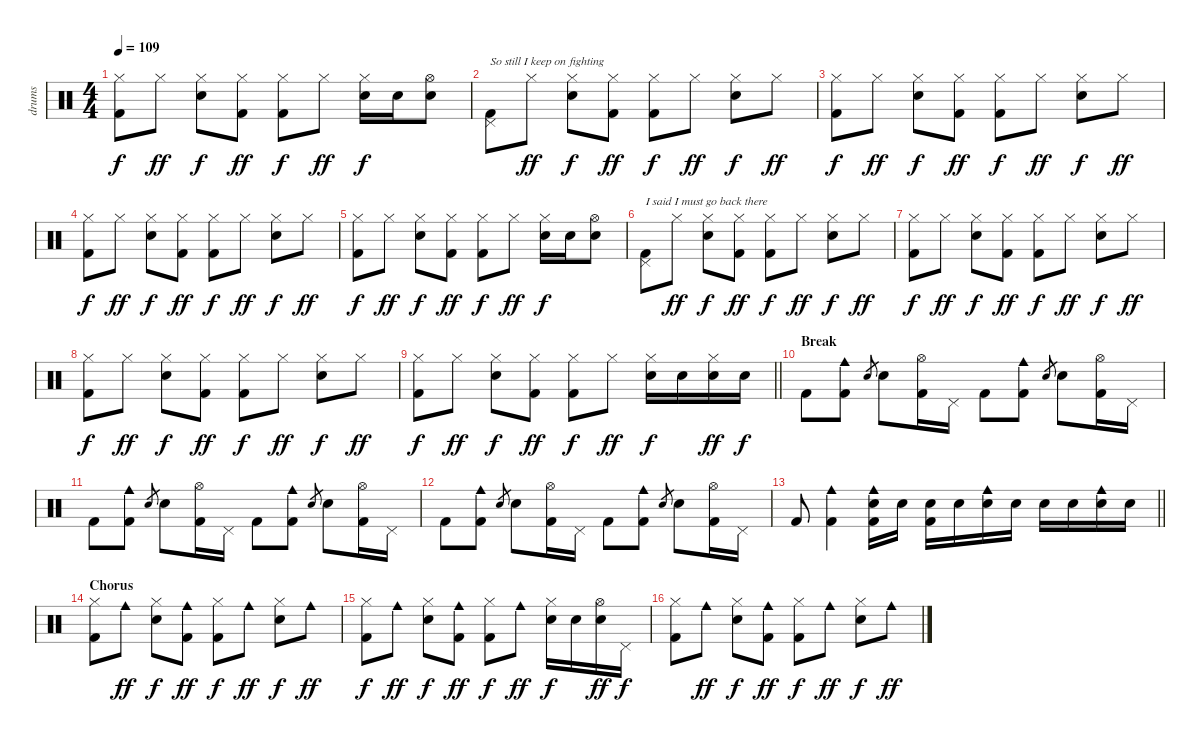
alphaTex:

\track ("drums" "drums") {instrument percussion}
\staff {score}
\articulation defaults
\ts (4 4)
\tempo 109
\clef neutral
\ks aminor
("Hi-Hat (closed)" "Kick (hit) 2").8{dy f} "Hi-Hat (closed)".8{dy ff} ("Hi-Hat (closed)" "Snare (hit) 2").8{dy f} ("Hi-Hat (closed)" "Kick (hit) 2").8{dy ff} ("Hi-Hat (closed)" "Kick (hit) 2").8{dy f} "Hi-Hat (closed)".8{dy ff} ("Hi-Hat (closed)" "Snare (hit) 2").16{dy f} "Snare (hit) 2".16 ("Hi-Hat (open)" "Snare (hit) 2").8 |
("Pedal Hi-Hat (hit)" "Kick (hit) 2").8{txt "So still I keep on fighting"} "Hi-Hat (closed)".8{dy ff} ("Hi-Hat (closed)" "Snare (hit) 2").8{dy f} ("Hi-Hat (closed)" "Kick (hit) 2").8{dy ff} ("Hi-Hat (closed)" "Kick (hit) 2").8{dy f} "Hi-Hat (closed)".8{dy ff} ("Hi-Hat (closed)" "Snare (hit) 2").8{dy f} "Hi-Hat (closed)".8{dy ff} |
("Hi-Hat (closed)" "Kick (hit) 2").8{dy f} "Hi-Hat (closed)".8{dy ff} ("Hi-Hat (closed)" "Snare (hit) 2").8{dy f} ("Hi-Hat (closed)" "Kick (hit) 2").8{dy ff} ("Hi-Hat (closed)" "Kick (hit) 2").8{dy f} "Hi-Hat (closed)".8{dy ff} ("Hi-Hat (closed)" "Snare (hit) 2").8{dy f} "Hi-Hat (closed)".8{dy ff} |
("Hi-Hat (closed)" "Kick (hit) 2").8{dy f} "Hi-Hat (closed)".8{dy ff} ("Hi-Hat (closed)" "Snare (hit) 2").8{dy f} ("Hi-Hat (closed)" "Kick (hit) 2").8{dy ff} ("Hi-Hat (closed)" "Kick (hit) 2").8{dy f} "Hi-Hat (closed)".8{dy ff} ("Hi-Hat (closed)" "Snare (hit) 2").8{dy f} "Hi-Hat (closed)".8{dy ff} |
("Hi-Hat (closed)" "Kick (hit) 2").8{dy f} "Hi-Hat (closed)".8{dy ff} ("Hi-Hat (closed)" "Snare (hit) 2").8{dy f} ("Hi-Hat (closed)" "Kick (hit) 2").8{dy ff} ("Hi-Hat (closed)" "Kick (hit) 2").8{dy f} "Hi-Hat (closed)".8{dy ff} ("Hi-Hat (closed)" "Snare (hit) 2").16{dy f} "Snare (hit) 2".16 ("Hi-Hat (open)" "Snare (hit) 2").8 |
("Pedal Hi-Hat (hit)" "Kick (hit) 2").8{txt "I said I must go back there"} "Hi-Hat (closed)".8{dy ff} ("Hi-Hat (closed)" "Snare (hit) 2").8{dy f} ("Hi-Hat (closed)" "Kick (hit) 2").8{dy ff} ("Hi-Hat (closed)" "Kick (hit) 2").8{dy f} "Hi-Hat (closed)".8{dy ff} ("Hi-Hat (closed)" "Snare (hit) 2").8{dy f} "Hi-Hat (closed)".8{dy ff} |
("Hi-Hat (closed)" "Kick (hit) 2").8{dy f} "Hi-Hat (closed)".8{dy ff} ("Hi-Hat (closed)" "Snare (hit) 2").8{dy f} ("Hi-Hat (closed)" "Kick (hit) 2").8{dy ff} ("Hi-Hat (closed)" "Kick (hit) 2").8{dy f} "Hi-Hat (closed)".8{dy ff} ("Hi-Hat (closed)" "Snare (hit) 2").8{dy f} "Hi-Hat (closed)".8{dy ff} |
("Hi-Hat (closed)" "Kick (hit) 2").8{dy f} "Hi-Hat (closed)".8{dy ff} ("Hi-Hat (closed)" "Snare (hit) 2").8{dy f} ("Hi-Hat (closed)" "Kick (hit) 2").8{dy ff} ("Hi-Hat (closed)" "Kick (hit) 2").8{dy f} "Hi-Hat (closed)".8{dy ff} ("Hi-Hat (closed)" "Snare (hit) 2").8{dy f} "Hi-Hat (closed)".8{dy ff} |
\barLineRight lightlight
("Hi-Hat (closed)" "Kick (hit) 2").8{dy f} "Hi-Hat (closed)".8{dy ff} ("Hi-Hat (closed)" "Snare (hit) 2").8{dy f} ("Hi-Hat (closed)" "Kick (hit) 2").8{dy ff} ("Hi-Hat (closed)" "Kick (hit) 2").8{dy f} "Hi-Hat (closed)".8{dy ff} ("Hi-Hat (closed)" "Snare (hit) 2").16{dy f} "Snare (hit) 2".16 ("Hi-Hat (closed)" "Snare (hit) 2").16{dy ff} "Snare (hit) 2".16{dy f} |
\section ("" "Break")
"Kick (hit) 2".8 ("Cowbell medium (hit)" "Kick (hit) 2").8 "Hand Clap (hit)".8{gr} "Hand Clap (hit)".8 ("Hi-Hat (open)" "Kick (hit) 2").16 "Pedal Hi-Hat (hit)".16 "Kick (hit) 2".8 ("Cowbell medium (hit)" "Kick (hit) 2").8 "Hand Clap (hit)".8{gr} "Hand Clap (hit)".8 ("Hi-Hat (open)" "Kick (hit) 2").16 "Pedal Hi-Hat (hit)".16 |
"Kick (hit) 2".8 ("Cowbell medium (hit)" "Kick (hit) 2").8 "Hand Clap (hit)".8{gr} "Hand Clap (hit)".8 ("Hi-Hat (open)" "Kick (hit) 2").16 "Pedal Hi-Hat (hit)".16 "Kick (hit) 2".8 ("Cowbell medium (hit)" "Kick (hit) 2").8 "Hand Clap (hit)".8{gr} "Hand Clap (hit)".8 ("Hi-Hat (open)" "Kick (hit) 2").16 "Pedal Hi-Hat (hit)".16 |
"Kick (hit) 2".8 ("Cowbell medium (hit)" "Kick (hit) 2").8 "Hand Clap (hit)".8{gr} "Hand Clap (hit)".8 ("Hi-Hat (open)" "Kick (hit) 2").16 "Pedal Hi-Hat (hit)".16 "Kick (hit) 2".8 ("Cowbell medium (hit)" "Kick (hit) 2").8 "Hand Clap (hit)".8{gr} "Hand Clap (hit)".8 ("Hi-Hat (open)" "Kick (hit) 2").16 "Pedal Hi-Hat (hit)".16 |
\barLineRight lightlight "Kick (hit) 2".8
("Cowbell medium (hit)" "Kick (hit) 2").4 ("Cowbell medium (hit)" "Snare (hit) 2" "Kick (hit) 2").16 "Snare (hit) 2".16 ("Snare (hit) 2" "Kick (hit) 2").16 "Snare (hit) 2".16 ("Cowbell medium (hit)" "Snare (hit) 2").16 "Snare (hit) 2".16 "Snare (hit) 2".16 "Snare (hit) 2".16 ("Cowbell medium (hit)" "Snare (hit) 2").16 "Snare (hit) 2".16 |
\section ("" "Chorus")
("Hi-Hat (closed)" "Kick (hit) 2").8 "Cowbell medium (hit)".8{dy ff} ("Hi-Hat (closed)" "Snare (hit) 2").8{dy f} ("Cowbell medium (hit)" "Kick (hit) 2").8{dy ff} ("Hi-Hat (closed)" "Kick (hit) 2").8{dy f} "Cowbell medium (hit)".8{dy ff} ("Hi-Hat (closed)" "Snare (hit) 2").8{dy f} "Cowbell medium (hit)".8{dy ff} |
("Hi-Hat (closed)" "Kick (hit) 2").8{dy f} "Cowbell medium (hit)".8{dy ff} ("Hi-Hat (closed)" "Snare (hit) 2").8{dy f} ("Cowbell medium (hit)" "Kick (hit) 2").8{dy ff} ("Hi-Hat (closed)" "Kick (hit) 2").8{dy f} "Cowbell medium (hit)".8{dy ff} ("Hi-Hat (closed)" "Snare (hit) 2").16{dy f} "Snare (hit) 2".16 ("Hi-Hat (open)" "Snare (hit) 2").16{dy ff} "Pedal Hi-Hat (hit)".16{dy f} |
("Hi-Hat (closed)" "Kick (hit) 2").8 "Cowbell medium (hit)".8{dy ff} ("Hi-Hat (closed)" "Snare (hit) 2").8{dy f} ("Cowbell medium (hit)" "Kick (hit) 2").8{dy ff} ("Hi-Hat (closed)" "Kick (hit) 2").8{dy f} "Cowbell medium (hit)".8{dy ff} ("Hi-Hat (closed)" "Snare (hit) 2").8{dy f} "Cowbell medium (hit)".8{dy ff}
